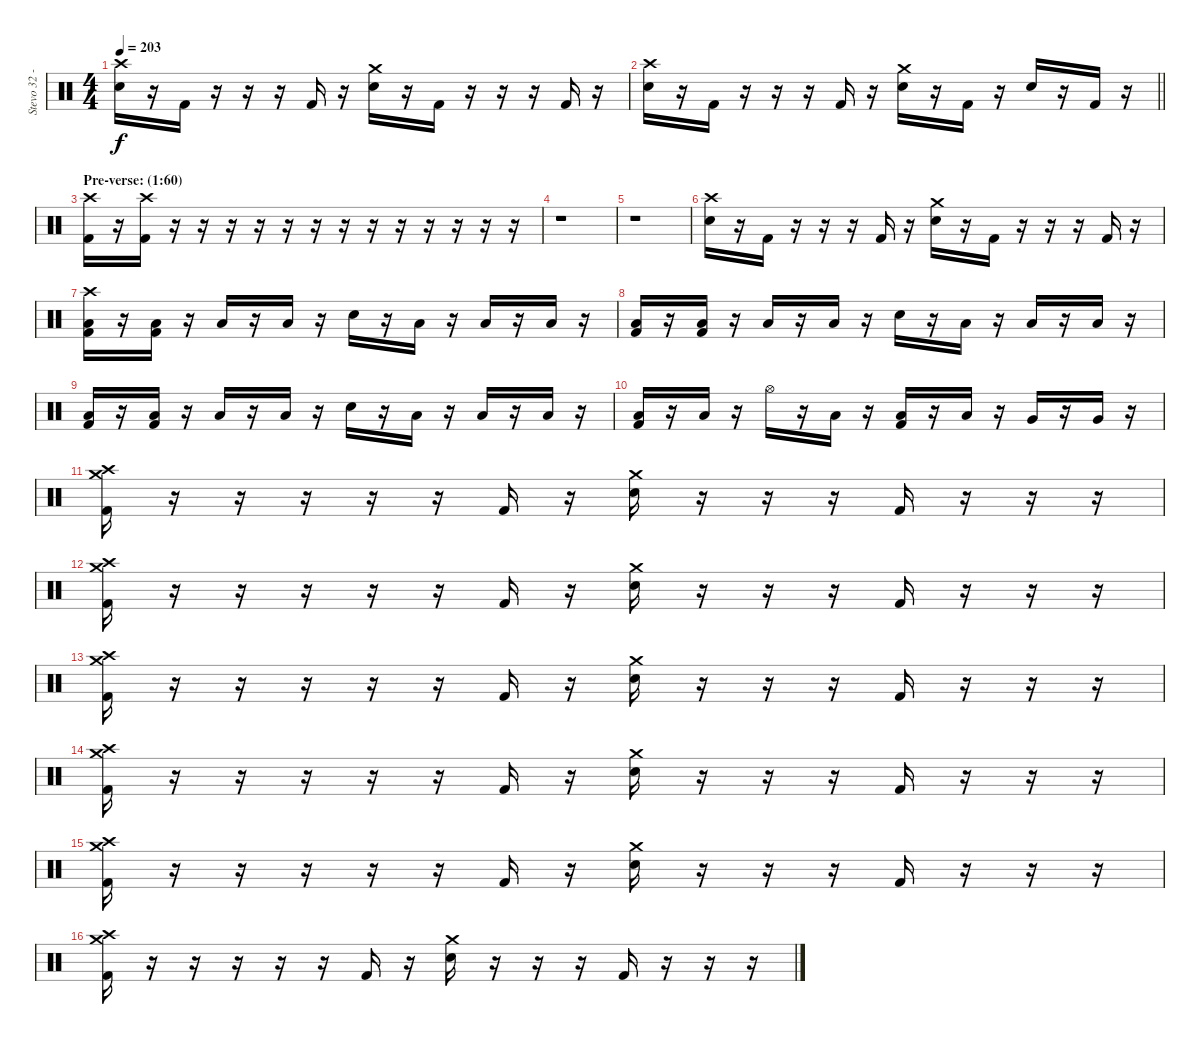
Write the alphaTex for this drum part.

\track ("Stevo 32 - Drums" "Stevo 32 -") {instrument percussion}
\staff {score}
\articulation defaults
\ts (4 4)
\tempo 203
\clef neutral
\ks c
("Crash high (hit)" "Snare (hit) 2").16{dy f} r.16 "Kick (hit) 2".16 r.16 r.16 r.16 "Kick (hit) 2".16 r.16 ("Crash medium (hit)" "Snare (hit) 2").16 r.16 "Kick (hit) 2".16 r.16 r.16 r.16 "Kick (hit) 2".16 r.16 |
\barLineRight lightlight
("Crash high (hit)" "Snare (hit) 2").16 r.16 "Kick (hit) 2".16 r.16 r.16 r.16 "Kick (hit) 2".16 r.16 ("Crash medium (hit)" "Snare (hit) 2").16 r.16 "Kick (hit) 2".16 r.16 "Snare (hit) 2".16 r.16 "Kick (hit) 2".16 r.16 |
\section ("" "Pre-verse: (1:60)")
("Crash high (hit)" "Kick (hit) 2").16 r.16 ("Crash high (hit)" "Kick (hit) 2").16 r.16 r.16 r.16 r.16 r.16 r.16 r.16 r.16 r.16 r.16 r.16 r.16 r.16 |
r.1 |
r.1 |
("Crash high (hit)" "Snare (hit) 2").16 r.16 "Kick (hit) 2".16 r.16 r.16 r.16 "Kick (hit) 2".16 r.16 ("Crash medium (hit)" "Snare (hit) 2").16 r.16 "Kick (hit) 2".16 r.16 r.16 r.16 "Kick (hit) 2".16 r.16 |
("Crash high (hit)" "Low Tom (hit)" "Kick (hit) 2").16 r.16 ("Low Tom (hit)" "Kick (hit) 2").16 r.16 "Low Tom (hit)".16 r.16 "Low Tom (hit)".16 r.16 "Snare (hit) 2".16 r.16 "Low Tom (hit)".16 r.16 "Low Tom (hit)".16 r.16 "Low Tom (hit)".16 r.16 |
("Low Tom (hit)" "Kick (hit) 2").16 r.16 ("Low Tom (hit)" "Kick (hit) 2").16 r.16 "Low Tom (hit)".16 r.16 "Low Tom (hit)".16 r.16 "Snare (hit) 2".16 r.16 "Low Tom (hit)".16 r.16 "Low Tom (hit)".16 r.16 "Low Tom (hit)".16 r.16 |
("Low Tom (hit)" "Kick (hit) 2").16 r.16 ("Low Tom (hit)" "Kick (hit) 2").16 r.16 "Low Tom (hit)".16 r.16 "Low Tom (hit)".16 r.16 "Snare (hit) 2".16 r.16 "Low Tom (hit)".16 r.16 "Low Tom (hit)".16 r.16 "Low Tom (hit)".16 r.16 |
("Low Tom (hit)" "Kick (hit) 2").16 r.16 "Low Tom (hit)".16 r.16 "Hi-Hat (open)".16 r.16 "Low Tom (hit)".16 r.16 ("Low Tom (hit)" "Kick (hit) 2").16 r.16 "Low Tom (hit)".16 r.16 "Very Low Tom (hit)".16 r.16 "Very Low Tom (hit)".16 r.16 |
("Crash high (hit)" "Crash medium (hit)" "Kick (hit) 2").16 r.16 r.16 r.16 r.16 r.16 "Kick (hit) 2".16 r.16 ("Crash medium (hit)" "Snare (hit) 2").16 r.16 r.16 r.16 "Kick (hit) 2".16 r.16 r.16 r.16 |
("Crash high (hit)" "Crash medium (hit)" "Kick (hit) 2").16 r.16 r.16 r.16 r.16 r.16 "Kick (hit) 2".16 r.16 ("Crash medium (hit)" "Snare (hit) 2").16 r.16 r.16 r.16 "Kick (hit) 2".16 r.16 r.16 r.16 |
("Crash high (hit)" "Crash medium (hit)" "Kick (hit) 2").16 r.16 r.16 r.16 r.16 r.16 "Kick (hit) 2".16 r.16 ("Crash medium (hit)" "Snare (hit) 2").16 r.16 r.16 r.16 "Kick (hit) 2".16 r.16 r.16 r.16 |
("Crash high (hit)" "Crash medium (hit)" "Kick (hit) 2").16 r.16 r.16 r.16 r.16 r.16 "Kick (hit) 2".16 r.16 ("Crash medium (hit)" "Snare (hit) 2").16 r.16 r.16 r.16 "Kick (hit) 2".16 r.16 r.16 r.16 |
("Crash high (hit)" "Crash medium (hit)" "Kick (hit) 2").16 r.16 r.16 r.16 r.16 r.16 "Kick (hit) 2".16 r.16 ("Crash medium (hit)" "Snare (hit) 2").16 r.16 r.16 r.16 "Kick (hit) 2".16 r.16 r.16 r.16 |
("Crash high (hit)" "Crash medium (hit)" "Kick (hit) 2").16 r.16 r.16 r.16 r.16 r.16 "Kick (hit) 2".16 r.16 ("Crash medium (hit)" "Snare (hit) 2").16 r.16 r.16 r.16 "Kick (hit) 2".16 r.16 r.16 r.16
